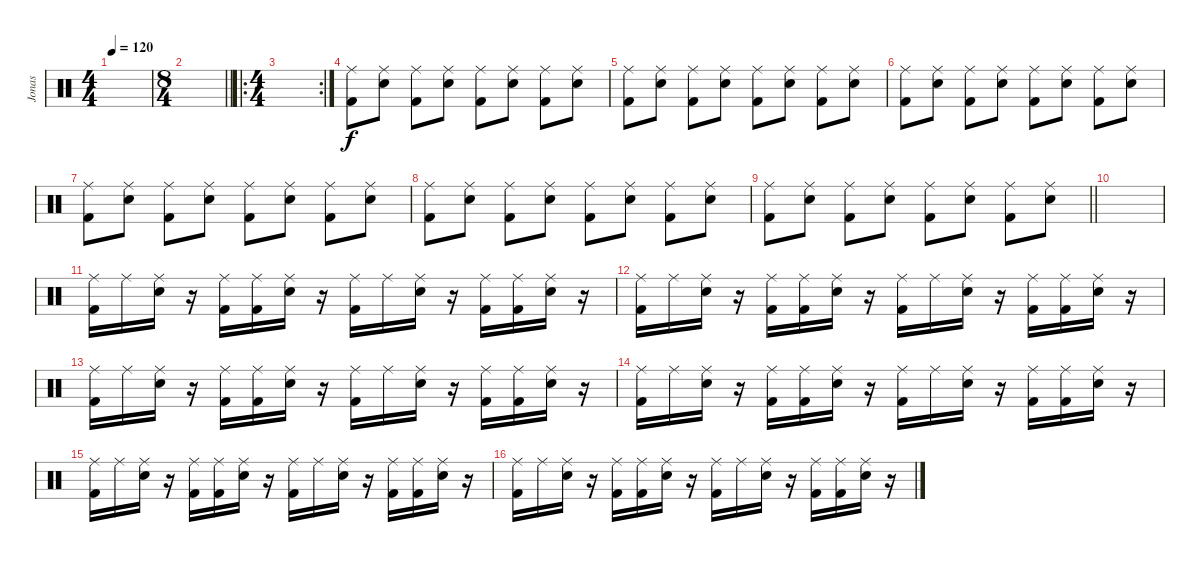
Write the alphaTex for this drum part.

\track ("Jonas" "Jonas") {instrument percussion}
\staff {score}
\articulation defaults
\ts (4 4)
\tempo 120
\clef neutral
\ks c
|
\ts (8 4)
\barLineRight lightlight
|
\ro
\rc 2
\ts (4 4)
|
("Ride (middle)" "Kick (hit) 2").8 ("Ride (middle)" "Snare (hit) 2").8 ("Ride (middle)" "Kick (hit) 2").8 ("Ride (middle)" "Snare (hit) 2").8 ("Ride (middle)" "Kick (hit) 2").8 ("Ride (middle)" "Snare (hit) 2").8 ("Ride (middle)" "Kick (hit) 2").8 ("Ride (middle)" "Snare (hit) 2").8 |
("Ride (middle)" "Kick (hit) 2").8 ("Ride (middle)" "Snare (hit) 2").8 ("Ride (middle)" "Kick (hit) 2").8 ("Ride (middle)" "Snare (hit) 2").8 ("Ride (middle)" "Kick (hit) 2").8 ("Ride (middle)" "Snare (hit) 2").8 ("Ride (middle)" "Kick (hit) 2").8 ("Ride (middle)" "Snare (hit) 2").8 |
("Ride (middle)" "Kick (hit) 2").8 ("Ride (middle)" "Snare (hit) 2").8 ("Ride (middle)" "Kick (hit) 2").8 ("Ride (middle)" "Snare (hit) 2").8 ("Ride (middle)" "Kick (hit) 2").8 ("Ride (middle)" "Snare (hit) 2").8 ("Ride (middle)" "Kick (hit) 2").8 ("Ride (middle)" "Snare (hit) 2").8 |
("Ride (middle)" "Kick (hit) 2").8 ("Ride (middle)" "Snare (hit) 2").8 ("Ride (middle)" "Kick (hit) 2").8 ("Ride (middle)" "Snare (hit) 2").8 ("Ride (middle)" "Kick (hit) 2").8 ("Ride (middle)" "Snare (hit) 2").8 ("Ride (middle)" "Kick (hit) 2").8 ("Ride (middle)" "Snare (hit) 2").8 |
("Ride (middle)" "Kick (hit) 2").8 ("Ride (middle)" "Snare (hit) 2").8 ("Ride (middle)" "Kick (hit) 2").8 ("Ride (middle)" "Snare (hit) 2").8 ("Ride (middle)" "Kick (hit) 2").8 ("Ride (middle)" "Snare (hit) 2").8 ("Ride (middle)" "Kick (hit) 2").8 ("Ride (middle)" "Snare (hit) 2").8 |
\barLineRight lightlight
("Ride (middle)" "Kick (hit) 2").8 ("Ride (middle)" "Snare (hit) 2").8 ("Ride (middle)" "Kick (hit) 2").8 ("Ride (middle)" "Snare (hit) 2").8 ("Ride (middle)" "Kick (hit) 2").8 ("Ride (middle)" "Snare (hit) 2").8 ("Ride (middle)" "Kick (hit) 2").8 ("Ride (middle)" "Snare (hit) 2").8 |
|
("Ride (middle)" "Kick (hit) 2").16 "Ride (middle)".16 ("Ride (middle)" "Snare (hit) 2").16 r.16 ("Ride (middle)" "Kick (hit) 2").16 ("Ride (middle)" "Kick (hit) 2").16 ("Ride (middle)" "Snare (hit) 2").16 r.16 ("Ride (middle)" "Kick (hit) 2").16 "Ride (middle)".16 ("Ride (middle)" "Snare (hit) 2").16 r.16 ("Ride (middle)" "Kick (hit) 2").16 ("Ride (middle)" "Kick (hit) 2").16 ("Ride (middle)" "Snare (hit) 2").16 r.16 |
("Ride (middle)" "Kick (hit) 2").16 "Ride (middle)".16 ("Ride (middle)" "Snare (hit) 2").16 r.16 ("Ride (middle)" "Kick (hit) 2").16 ("Ride (middle)" "Kick (hit) 2").16 ("Ride (middle)" "Snare (hit) 2").16 r.16 ("Ride (middle)" "Kick (hit) 2").16 "Ride (middle)".16 ("Ride (middle)" "Snare (hit) 2").16 r.16 ("Ride (middle)" "Kick (hit) 2").16 ("Ride (middle)" "Kick (hit) 2").16 ("Ride (middle)" "Snare (hit) 2").16 r.16 |
("Ride (middle)" "Kick (hit) 2").16 "Ride (middle)".16 ("Ride (middle)" "Snare (hit) 2").16 r.16 ("Ride (middle)" "Kick (hit) 2").16 ("Ride (middle)" "Kick (hit) 2").16 ("Ride (middle)" "Snare (hit) 2").16 r.16 ("Ride (middle)" "Kick (hit) 2").16 "Ride (middle)".16 ("Ride (middle)" "Snare (hit) 2").16 r.16 ("Ride (middle)" "Kick (hit) 2").16 ("Ride (middle)" "Kick (hit) 2").16 ("Ride (middle)" "Snare (hit) 2").16 r.16 |
("Ride (middle)" "Kick (hit) 2").16 "Ride (middle)".16 ("Ride (middle)" "Snare (hit) 2").16 r.16 ("Ride (middle)" "Kick (hit) 2").16 ("Ride (middle)" "Kick (hit) 2").16 ("Ride (middle)" "Snare (hit) 2").16 r.16 ("Ride (middle)" "Kick (hit) 2").16 "Ride (middle)".16 ("Ride (middle)" "Snare (hit) 2").16 r.16 ("Ride (middle)" "Kick (hit) 2").16 ("Ride (middle)" "Kick (hit) 2").16 ("Ride (middle)" "Snare (hit) 2").16 r.16 |
("Ride (middle)" "Kick (hit) 2").16 "Ride (middle)".16 ("Ride (middle)" "Snare (hit) 2").16 r.16 ("Ride (middle)" "Kick (hit) 2").16 ("Ride (middle)" "Kick (hit) 2").16 ("Ride (middle)" "Snare (hit) 2").16 r.16 ("Ride (middle)" "Kick (hit) 2").16 "Ride (middle)".16 ("Ride (middle)" "Snare (hit) 2").16 r.16 ("Ride (middle)" "Kick (hit) 2").16 ("Ride (middle)" "Kick (hit) 2").16 ("Ride (middle)" "Snare (hit) 2").16 r.16 |
("Ride (middle)" "Kick (hit) 2").16 "Ride (middle)".16 ("Ride (middle)" "Snare (hit) 2").16 r.16 ("Ride (middle)" "Kick (hit) 2").16 ("Ride (middle)" "Kick (hit) 2").16 ("Ride (middle)" "Snare (hit) 2").16 r.16 ("Ride (middle)" "Kick (hit) 2").16 "Ride (middle)".16 ("Ride (middle)" "Snare (hit) 2").16 r.16 ("Ride (middle)" "Kick (hit) 2").16 ("Ride (middle)" "Kick (hit) 2").16 ("Ride (middle)" "Snare (hit) 2").16 r.16
